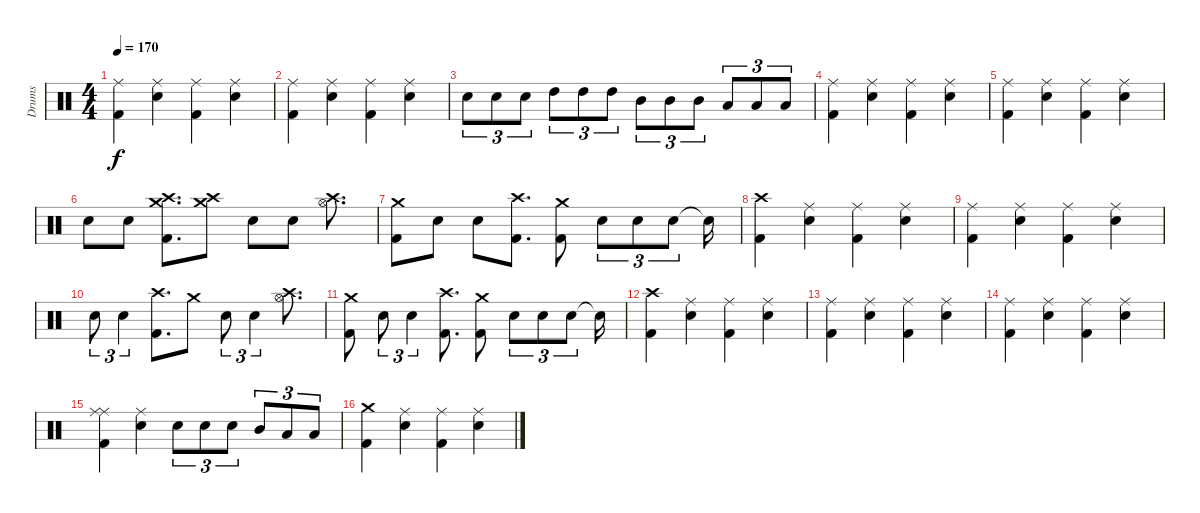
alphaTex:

\track ("Drums" "Drums") {instrument percussion}
\staff {score}
\articulation defaults
\ts (4 4)
\tempo 170
\clef neutral
\ks c
("Ride (middle)" "Kick (hit) 2").4{dy f} ("Ride (middle)" "Snare (hit) 2").4 ("Ride (middle)" "Kick (hit) 2").4 ("Ride (middle)" "Snare (hit) 2").4 |
("Ride (middle)" "Kick (hit) 2").4 ("Ride (middle)" "Snare (hit) 2").4 ("Ride (middle)" "Kick (hit) 2").4 ("Ride (middle)" "Snare (hit) 2").4 |
"Snare (hit) 2".8{tu (3 2)} "Snare (hit) 2".8{tu (3 2)} "Snare (hit) 2".8{tu (3 2)} "High Tom (hit)".8{tu (3 2)} "High Tom (hit)".8{tu (3 2)} "High Tom (hit)".8{tu (3 2)} "Mid Tom (hit)".8{tu (3 2)} "Mid Tom (hit)".8{tu (3 2)} "Mid Tom (hit)".8{tu (3 2)} "Low Tom (hit)".8{tu (3 2)} "Low Tom (hit)".8{tu (3 2)} "Low Tom (hit)".8{tu (3 2)} |
("Ride (middle)" "Kick (hit) 2").4 ("Ride (middle)" "Snare (hit) 2").4 ("Ride (middle)" "Kick (hit) 2").4 ("Ride (middle)" "Snare (hit) 2").4 |
("Ride (middle)" "Kick (hit) 2").4 ("Ride (middle)" "Snare (hit) 2").4 ("Ride (middle)" "Kick (hit) 2").4 ("Ride (middle)" "Snare (hit) 2").4 |
"Snare (hit) 2".8 "Snare (hit) 2".8 ("Crash medium (hit)" "Crash high (hit)" "Kick (hit) 2").8{d} ("Crash high (hit)" "Crash medium (hit)").8 "Snare (hit) 2".8 "Snare (hit) 2".8 ("Crash high (hit)" "Hi-Hat (open)").8{d} |
("Crash medium (hit)" "Kick (hit) 2").8 "Snare (hit) 2".8 "Snare (hit) 2".8 ("Crash high (hit)" "Kick (hit) 2").8{d} ("Crash medium (hit)" "Kick (hit) 2").8 "Snare (hit) 2".8{tu (3 2)} "Snare (hit) 2".8{tu (3 2)} "Snare (hit) 2".8{tu (3 2)} "Snare (hit)"{t}.16 |
("Crash high (hit)" "Kick (hit) 2").4 ("Ride (middle)" "Snare (hit) 2").4 ("Ride (middle)" "Kick (hit) 2").4 ("Ride (middle)" "Snare (hit) 2").4 |
("Ride (middle)" "Kick (hit) 2").4 ("Ride (middle)" "Snare (hit) 2").4 ("Ride (middle)" "Kick (hit) 2").4 ("Ride (middle)" "Snare (hit) 2").4 |
"Snare (hit) 2".8{tu (3 2)} "Snare (hit) 2".4{tu (3 2)} ("Crash high (hit)" "Kick (hit) 2").8{d} "Crash medium (hit)".8 "Snare (hit) 2".8{tu (3 2)} "Snare (hit) 2".4{tu (3 2)} ("Crash high (hit)" "Hi-Hat (open)").8{d} |
("Crash medium (hit)" "Kick (hit) 2").8 "Snare (hit) 2".8{tu (3 2)} "Snare (hit) 2".4{tu (3 2)} ("Crash high (hit)" "Kick (hit) 2").8{d} ("Crash medium (hit)" "Kick (hit) 2").8 "Snare (hit) 2".8{tu (3 2)} "Snare (hit) 2".8{tu (3 2)} "Snare (hit) 2".8{tu (3 2)} "Snare (hit)"{t}.16 |
("Crash high (hit)" "Kick (hit) 2").4 ("Ride (middle)" "Snare (hit) 2").4 ("Ride (middle)" "Kick (hit) 2").4 ("Ride (middle)" "Snare (hit) 2").4 |
("Ride (middle)" "Kick (hit) 2").4 ("Ride (middle)" "Snare (hit) 2").4 ("Ride (middle)" "Kick (hit) 2").4 ("Ride (middle)" "Snare (hit) 2").4 |
("Ride (middle)" "Kick (hit) 2").4 ("Ride (middle)" "Snare (hit) 2").4 ("Ride (middle)" "Kick (hit) 2").4 ("Ride (middle)" "Snare (hit) 2").4 |
("Ride (middle)" "Ride (middle)" "Kick (hit) 2").4 ("Ride (middle)" "Snare (hit) 2").4 "Snare (hit) 2".8{tu (3 2)} "Snare (hit) 2".8{tu (3 2)} "Snare (hit) 2".8{tu (3 2)} "Mid Tom (hit)".8{tu (3 2)} "Low Tom (hit)".8{tu (3 2)} "Low Tom (hit)".8{tu (3 2)} |
("Crash medium (hit)" "Kick (hit) 2").4 ("Ride (middle)" "Snare (hit) 2").4 ("Ride (middle)" "Kick (hit) 2").4 ("Ride (middle)" "Snare (hit) 2").4
